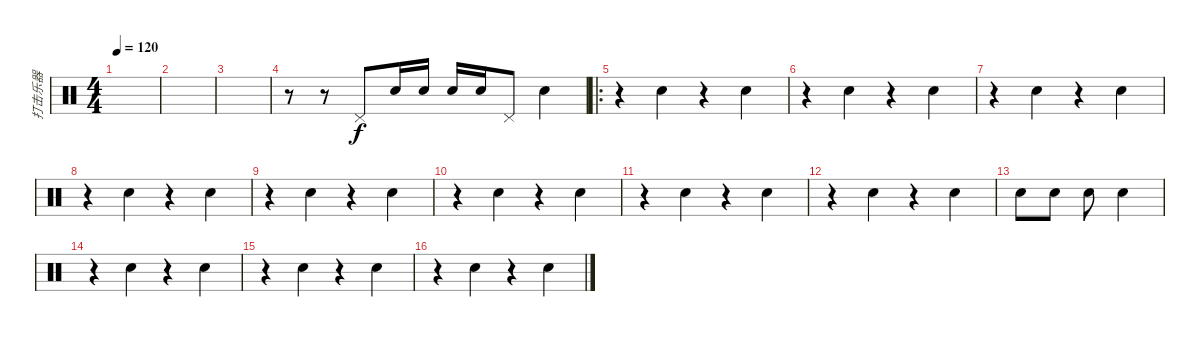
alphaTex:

\track ("打击乐器" "打击乐器") {instrument percussion}
\staff {score}
\articulation defaults
\ts (4 4)
\tempo 120
\clef neutral
\ks c
|
|
|
r.8 r.8 "Pedal Hi-Hat (hit)".8 "Snare (hit) 2".16 "Snare (hit) 2".16 "Snare (hit) 2".16 "Snare (hit) 2".16 "Pedal Hi-Hat (hit)".8 "Snare (hit) 2".4 |
\ro
r.4 "Electric Snare (hit)".4 r.4 "Electric Snare (hit)".4 |
r.4 "Electric Snare (hit)".4 r.4 "Electric Snare (hit)".4 |
r.4 "Electric Snare (hit)".4 r.4 "Electric Snare (hit)".4 |
r.4 "Electric Snare (hit)".4 r.4 "Electric Snare (hit)".4 |
r.4 "Electric Snare (hit)".4 r.4 "Electric Snare (hit)".4 |
r.4 "Electric Snare (hit)".4 r.4 "Electric Snare (hit)".4 |
r.4 "Electric Snare (hit)".4 r.4 "Electric Snare (hit)".4 |
r.4 "Electric Snare (hit)".4 r.4 "Electric Snare (hit)".4 |
"Snare (hit) 2".8 "Snare (hit) 2".8 "Snare (hit) 2".8 "Electric Snare (hit)".4 |
r.4 "Electric Snare (hit)".4 r.4 "Electric Snare (hit)".4 |
r.4 "Electric Snare (hit)".4 r.4 "Electric Snare (hit)".4 |
r.4 "Electric Snare (hit)".4 r.4 "Electric Snare (hit)".4
